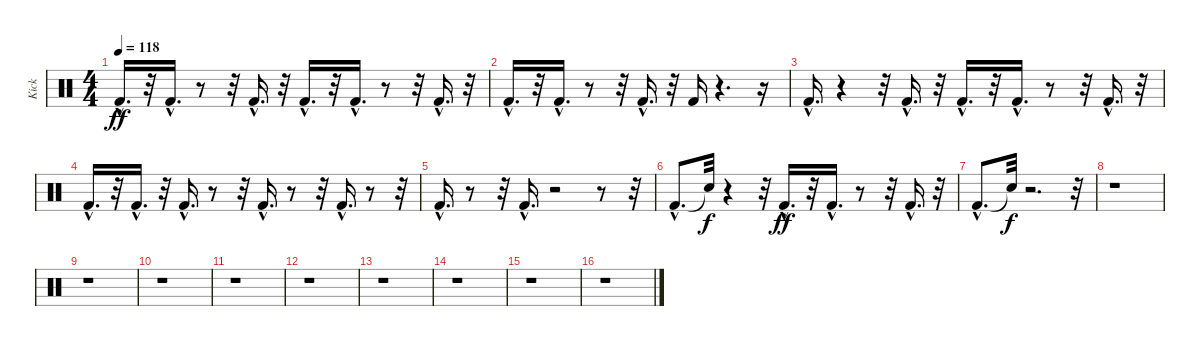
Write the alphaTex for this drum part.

\track ("Kick                " "Kick      ") {instrument percussion}
\staff {score}
\articulation defaults
\ts (4 4)
\tempo 118
\clef neutral
\ks c "Kick (hit) 2"{hac}.16{d dy ff}
r.32 "Kick (hit) 2"{hac}.16{d} r.8 r.32 "Kick (hit) 2"{hac}.16{d} r.32 "Kick (hit) 2"{hac}.16{d} r.32 "Kick (hit) 2"{hac}.16{d} r.8 r.32 "Kick (hit) 2"{hac}.16{d} r.32 |
"Kick (hit) 2"{hac}.16{d} r.32 "Kick (hit) 2"{hac}.16{d} r.8 r.32 "Kick (hit) 2"{hac}.16{d} r.32 "Kick (hit) 2".16 r.4{d} r.16 |
"Kick (hit) 2"{hac}.16{d} r.4 r.32 "Kick (hit) 2"{hac}.16{d} r.32 "Kick (hit) 2"{hac}.16{d} r.32 "Kick (hit) 2"{hac}.16{d} r.8 r.32 "Kick (hit) 2"{hac}.16{d} r.32 |
"Kick (hit) 2"{hac}.16{d} r.32 "Kick (hit) 2"{hac}.16{d} r.32 "Kick (hit) 2"{hac}.16{d} r.8 r.32 "Kick (hit) 2"{hac}.16{d} r.8 r.32 "Kick (hit) 2"{hac}.16{d} r.8 r.32 |
"Kick (hit) 2"{hac}.16{d} r.8 r.32 "Kick (hit) 2"{hac}.16{d} r.2 r.8 r.32 |
"Kick (hit) 2"{hac}.8{d} "Snare (hit)"{t}.32{dy f} r.4 r.32 "Kick (hit) 2"{hac}.16{d dy ff} r.32 "Kick (hit) 2"{hac}.16{d} r.8 r.32 "Kick (hit) 2"{hac}.16{d} r.32 |
"Kick (hit) 2"{hac}.8{d} "Snare (hit)"{t}.32{dy f} r.2{d} r.32 |
r.1 |
r.1 |
r.1 |
r.1 |
r.1 |
r.1 |
r.1 |
r.1 |
r.1
